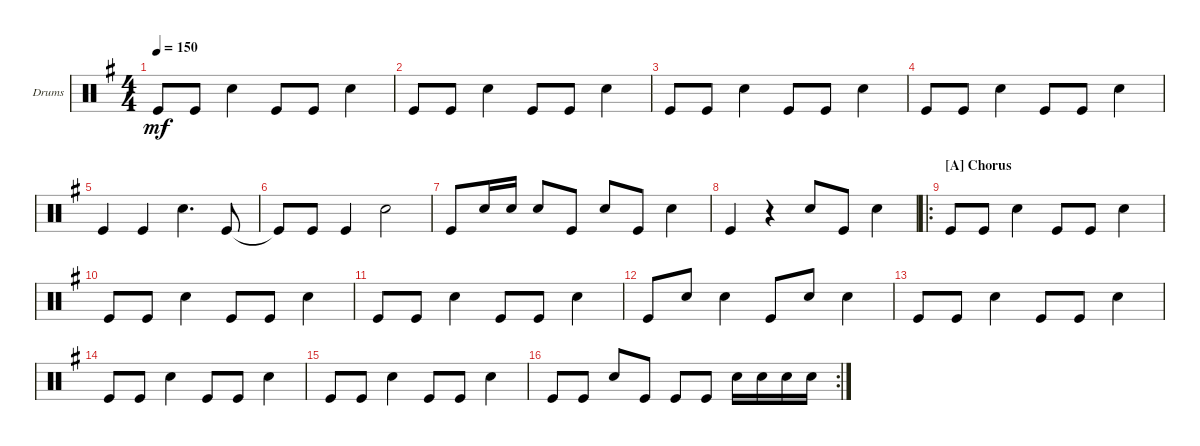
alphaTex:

\defaultSystemsLayout 4
\bracketExtendMode groupsimilarinstruments
\firstSystemTrackNameOrientation horizontal
\otherSystemsTrackNameOrientation horizontal
\track ("Drumkit" "Drums") {instrument percussion}
\staff {score}
\articulation defaults
\ts (4 4)
\tempo 150
\clef neutral
\ks g "Kick (hit)".8{dy mf} "Kick (hit)".8 "Snare (hit) 2".4 "Kick (hit)".8 "Kick (hit)".8 "Snare (hit) 2".4
|
"Kick (hit)".8 "Kick (hit)".8 "Snare (hit) 2".4 "Kick (hit)".8 "Kick (hit)".8 "Snare (hit) 2".4 |
"Kick (hit)".8 "Kick (hit)".8 "Snare (hit) 2".4 "Kick (hit)".8 "Kick (hit)".8 "Snare (hit) 2".4 |
"Kick (hit)".8 "Kick (hit)".8 "Snare (hit) 2".4 "Kick (hit)".8 "Kick (hit)".8 "Snare (hit) 2".4 |
"Kick (hit)".4 "Kick (hit)".4 "Snare (hit) 2".4{d} "Kick (hit)".8 |
"Kick (hit)"{t}.8 "Kick (hit)".8 "Kick (hit)".4 "Snare (hit) 2".2 |
"Kick (hit)".8 "Snare (hit) 2".16 "Snare (hit) 2".16 "Snare (hit) 2".8 "Kick (hit)".8 "Snare (hit) 2".8 "Kick (hit)".8 "Snare (hit) 2".4 |
"Kick (hit)".4 r.4 "Snare (hit) 2".8 "Kick (hit)".8 "Snare (hit) 2".4 |
\ro
\section ("A" "Chorus")
"Kick (hit)".8 "Kick (hit)".8 "Snare (hit) 2".4 "Kick (hit)".8 "Kick (hit)".8 "Snare (hit) 2".4 |
"Kick (hit)".8 "Kick (hit)".8 "Snare (hit) 2".4 "Kick (hit)".8 "Kick (hit)".8 "Snare (hit) 2".4 |
"Kick (hit)".8 "Kick (hit)".8 "Snare (hit) 2".4 "Kick (hit)".8 "Kick (hit)".8 "Snare (hit) 2".4 |
"Kick (hit)".8 "Snare (hit) 2".8 "Snare (hit) 2".4 "Kick (hit)".8 "Snare (hit) 2".8 "Snare (hit) 2".4 |
"Kick (hit)".8 "Kick (hit)".8 "Snare (hit) 2".4 "Kick (hit)".8 "Kick (hit)".8 "Snare (hit) 2".4 |
"Kick (hit)".8 "Kick (hit)".8 "Snare (hit) 2".4 "Kick (hit)".8 "Kick (hit)".8 "Snare (hit) 2".4 |
"Kick (hit)".8 "Kick (hit)".8 "Snare (hit) 2".4 "Kick (hit)".8 "Kick (hit)".8 "Snare (hit) 2".4 |
\rc 2 "Kick (hit)".8 "Kick (hit)".8 "Snare (hit) 2".8 "Kick (hit)".8 "Kick (hit)".8 "Kick (hit)".8 "Snare (hit) 2".16 "Snare (hit) 2".16 "Snare (hit) 2".16 "Snare (hit) 2".16
